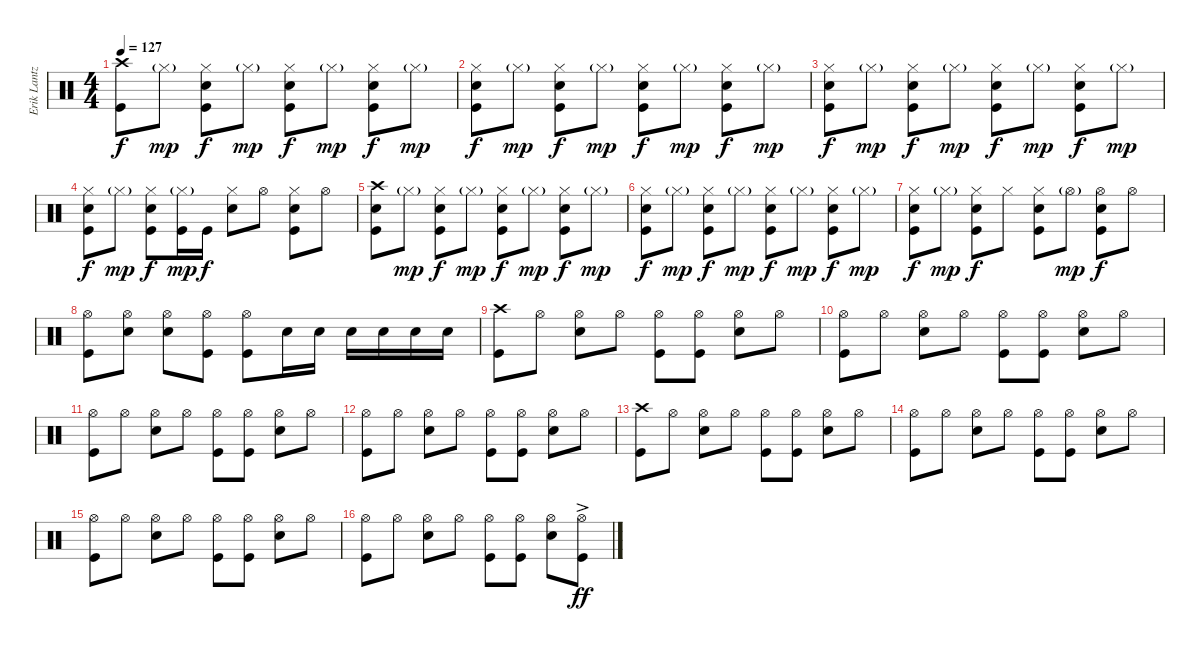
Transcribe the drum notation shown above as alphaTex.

\track ("Erik Lantz" "Erik Lantz") {instrument percussion}
\staff {score}
\articulation defaults
\ts (4 4)
\tempo 127
\clef neutral
\ks c
("Crash high (hit)" "Kick (hit)").8{dy f} "Hi-Hat (closed)"{g}.8{dy mp} ("Hi-Hat (closed)" "Electric Snare (hit)" "Kick (hit)").8{dy f} "Hi-Hat (closed)"{g}.8{dy mp} ("Hi-Hat (closed)" "Electric Snare (hit)" "Kick (hit)").8{dy f} "Hi-Hat (closed)"{g}.8{dy mp} ("Hi-Hat (closed)" "Electric Snare (hit)" "Kick (hit)").8{dy f} "Hi-Hat (closed)"{g}.8{dy mp} |
("Hi-Hat (closed)" "Electric Snare (hit)" "Kick (hit)").8{dy f} "Hi-Hat (closed)"{g}.8{dy mp} ("Hi-Hat (closed)" "Electric Snare (hit)" "Kick (hit)").8{dy f} "Hi-Hat (closed)"{g}.8{dy mp} ("Hi-Hat (closed)" "Electric Snare (hit)" "Kick (hit)").8{dy f} "Hi-Hat (closed)"{g}.8{dy mp} ("Hi-Hat (closed)" "Electric Snare (hit)" "Kick (hit)").8{dy f} "Hi-Hat (closed)"{g}.8{dy mp} |
("Hi-Hat (closed)" "Electric Snare (hit)" "Kick (hit)").8{dy f} "Hi-Hat (closed)"{g}.8{dy mp} ("Hi-Hat (closed)" "Electric Snare (hit)" "Kick (hit)").8{dy f} "Hi-Hat (closed)"{g}.8{dy mp} ("Hi-Hat (closed)" "Electric Snare (hit)" "Kick (hit)").8{dy f} "Hi-Hat (closed)"{g}.8{dy mp} ("Hi-Hat (closed)" "Electric Snare (hit)" "Kick (hit)").8{dy f} "Hi-Hat (closed)"{g}.8{dy mp} |
("Hi-Hat (closed)" "Electric Snare (hit)" "Kick (hit)").8{dy f} "Hi-Hat (closed)"{g}.8{dy mp} ("Hi-Hat (closed)" "Electric Snare (hit)" "Kick (hit)").8{dy f} ("Hi-Hat (closed)"{g} "Kick (hit)").16{dy mp} "Kick (hit)".16{dy f} ("Hi-Hat (closed)" "Electric Snare (hit)").8 "Hi-Hat (open)".8 ("Hi-Hat (closed)" "Electric Snare (hit)" "Kick (hit)").8 "Hi-Hat (open)".8 |
("Crash high (hit)" "Electric Snare (hit)" "Kick (hit)").8 "Hi-Hat (closed)"{g}.8{dy mp} ("Hi-Hat (closed)" "Electric Snare (hit)" "Kick (hit)").8{dy f} "Hi-Hat (closed)"{g}.8{dy mp} ("Hi-Hat (closed)" "Electric Snare (hit)" "Kick (hit)").8{dy f} "Hi-Hat (closed)"{g}.8{dy mp} ("Hi-Hat (closed)" "Electric Snare (hit)" "Kick (hit)").8{dy f} "Hi-Hat (closed)"{g}.8{dy mp} |
("Hi-Hat (closed)" "Electric Snare (hit)" "Kick (hit)").8{dy f} "Hi-Hat (closed)"{g}.8{dy mp} ("Hi-Hat (closed)" "Electric Snare (hit)" "Kick (hit)").8{dy f} "Hi-Hat (closed)"{g}.8{dy mp} ("Hi-Hat (closed)" "Electric Snare (hit)" "Kick (hit)").8{dy f} "Hi-Hat (closed)"{g}.8{dy mp} ("Hi-Hat (closed)" "Electric Snare (hit)" "Kick (hit)").8{dy f} "Hi-Hat (closed)"{g}.8{dy mp} |
("Hi-Hat (closed)" "Electric Snare (hit)" "Kick (hit)").8{dy f} "Hi-Hat (closed)"{g}.8{dy mp} ("Hi-Hat (closed)" "Electric Snare (hit)" "Kick (hit)").8{dy f} "Hi-Hat (closed)".8 ("Hi-Hat (closed)" "Electric Snare (hit)" "Kick (hit)").8 "Hi-Hat (open)"{g}.8{dy mp} ("Hi-Hat (open)" "Electric Snare (hit)" "Kick (hit)").8{dy f} "Hi-Hat (open)".8 |
("Hi-Hat (open)" "Kick (hit)").8 ("Hi-Hat (open)" "Electric Snare (hit)").8 ("Hi-Hat (open)" "Electric Snare (hit)").8 ("Hi-Hat (open)" "Kick (hit)").8 ("Hi-Hat (open)" "Kick (hit)").8 "Electric Snare (hit)".16 "Electric Snare (hit)".16 "Electric Snare (hit)".16 "Electric Snare (hit)".16 "Electric Snare (hit)".16 "Electric Snare (hit)".16 |
("Crash high (hit)" "Kick (hit)").8 "Hi-Hat (open)".8 ("Hi-Hat (open)" "Electric Snare (hit)").8 "Hi-Hat (open)".8 ("Hi-Hat (open)" "Kick (hit)").8 ("Hi-Hat (open)" "Kick (hit)").8 ("Hi-Hat (open)" "Electric Snare (hit)").8 "Hi-Hat (open)".8 |
("Hi-Hat (open)" "Kick (hit)").8 "Hi-Hat (open)".8 ("Hi-Hat (open)" "Electric Snare (hit)").8 "Hi-Hat (open)".8 ("Hi-Hat (open)" "Kick (hit)").8 ("Hi-Hat (open)" "Kick (hit)").8 ("Hi-Hat (open)" "Electric Snare (hit)").8 "Hi-Hat (open)".8 |
("Hi-Hat (open)" "Kick (hit)").8 "Hi-Hat (open)".8 ("Hi-Hat (open)" "Electric Snare (hit)").8 "Hi-Hat (open)".8 ("Hi-Hat (open)" "Kick (hit)").8 ("Hi-Hat (open)" "Kick (hit)").8 ("Hi-Hat (open)" "Electric Snare (hit)").8 "Hi-Hat (open)".8 |
("Hi-Hat (open)" "Kick (hit)").8 "Hi-Hat (open)".8 ("Hi-Hat (open)" "Electric Snare (hit)").8 "Hi-Hat (open)".8 ("Hi-Hat (open)" "Kick (hit)").8 ("Hi-Hat (open)" "Kick (hit)").8 ("Hi-Hat (open)" "Electric Snare (hit)").8 "Hi-Hat (open)".8 |
("Crash high (hit)" "Kick (hit)").8 "Hi-Hat (open)".8 ("Hi-Hat (open)" "Electric Snare (hit)").8 "Hi-Hat (open)".8 ("Hi-Hat (open)" "Kick (hit)").8 ("Hi-Hat (open)" "Kick (hit)").8 ("Hi-Hat (open)" "Electric Snare (hit)").8 "Hi-Hat (open)".8 |
("Hi-Hat (open)" "Kick (hit)").8 "Hi-Hat (open)".8 ("Hi-Hat (open)" "Electric Snare (hit)").8 "Hi-Hat (open)".8 ("Hi-Hat (open)" "Kick (hit)").8 ("Hi-Hat (open)" "Kick (hit)").8 ("Hi-Hat (open)" "Electric Snare (hit)").8 "Hi-Hat (open)".8 |
("Hi-Hat (open)" "Kick (hit)").8 "Hi-Hat (open)".8 ("Hi-Hat (open)" "Electric Snare (hit)").8 "Hi-Hat (open)".8 ("Hi-Hat (open)" "Kick (hit)").8 ("Hi-Hat (open)" "Kick (hit)").8 ("Hi-Hat (open)" "Electric Snare (hit)").8 "Hi-Hat (open)".8 |
("Hi-Hat (open)" "Kick (hit)").8 "Hi-Hat (open)".8 ("Hi-Hat (open)" "Electric Snare (hit)").8 "Hi-Hat (open)".8 ("Hi-Hat (open)" "Kick (hit)").8 ("Hi-Hat (open)" "Kick (hit)").8 ("Hi-Hat (open)" "Electric Snare (hit)").8 ("Hi-Hat (open)"{ac} "Kick (hit)").8{dy ff}
